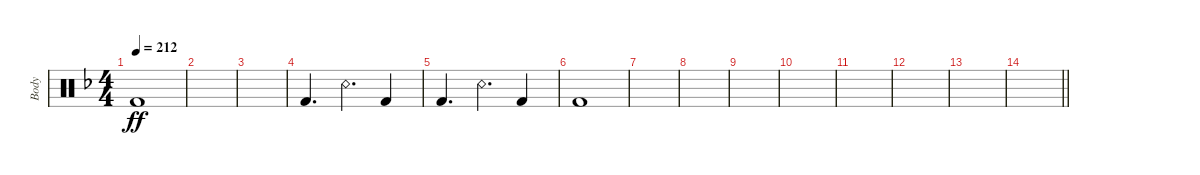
\track ("Body" "Body") {instrument percussion}
\staff {score}
\articulation defaults
\ts (4 4)
\tempo 212
\clef neutral
\ks dminor "Kick (hit) 2".1{dy ff}
|
|
|
"Kick (hit) 2".4{d} "Snare (rim shot)".4{d} "Kick (hit) 2".4 |
"Kick (hit) 2".4{d} "Snare (rim shot)".4{d} "Kick (hit) 2".4 |
"Kick (hit) 2".1 |
|
|
|
|
|
|
|
\barLineRight lightlight
